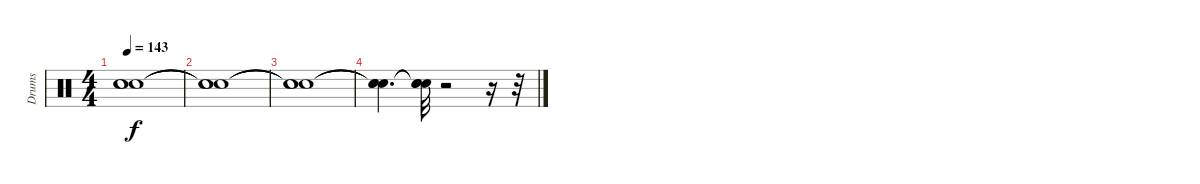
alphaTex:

\track ("Drums               " "Drums     ") {instrument percussion}
\staff {score}
\articulation defaults
\ts (4 4)
\tempo 143
\clef neutral
\ks c
("Snare (hit)"{t} "Snare (hit)"{t} "Snare (hit)"{t}).1{dy f} |
("Snare (hit)"{t} "Snare (hit)"{t} "Snare (hit)"{t}).1 |
("Snare (hit)"{t} "Snare (hit)"{t} "Snare (hit)"{t}).1 |
("Snare (hit)"{t} "Snare (hit)"{t} "Snare (hit)"{t}).4{d} ("Snare (hit)"{t} "Snare (hit)"{t} "Snare (hit)"{t}).32 r.2 r.16 r.32
